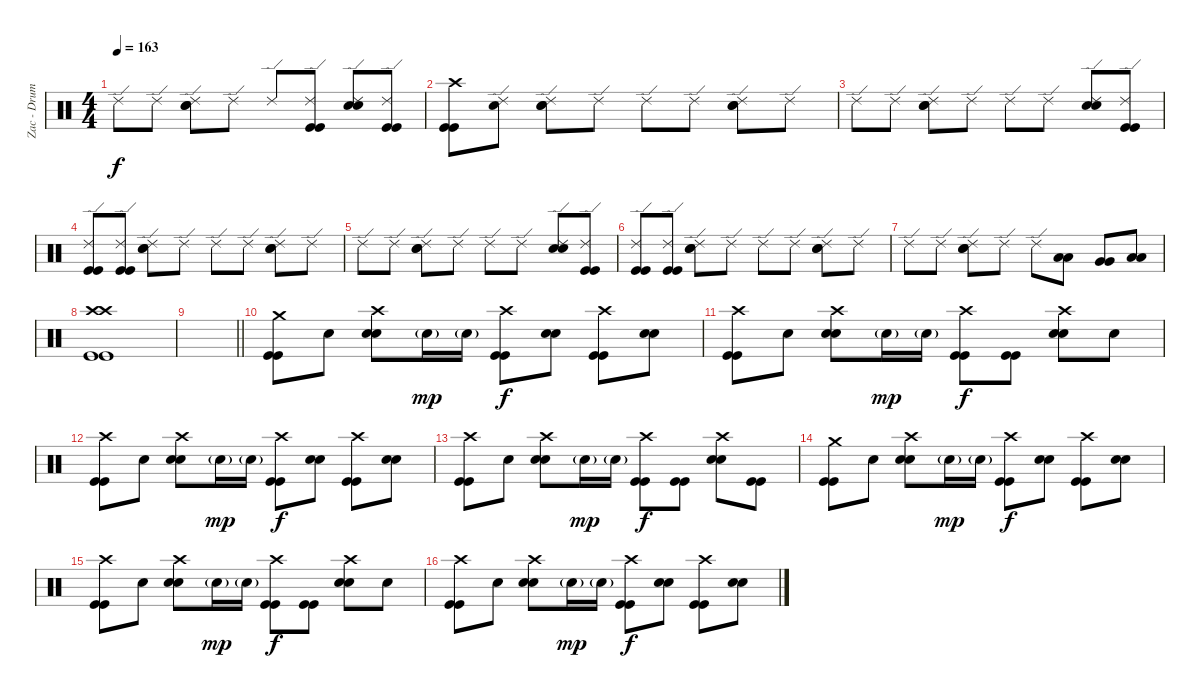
\track ("Zac - Drums" "Zac - Drum") {instrument percussion}
\staff {score}
\articulation defaults
\ts (4 4)
\tempo 163
\clef neutral
\ks c "Ride (edge) 2".8{dy f} "Ride (edge) 2".8
("Ride (edge) 2" "Electric Snare (hit)" "Electric Snare (hit)").8 "Ride (edge) 2".8 "Ride (edge) 2".8 ("Ride (edge) 2" "Kick (hit)" "Kick (hit)").8 ("Ride (edge) 2" "Electric Snare (hit)" "Electric Snare (hit)").8 ("Ride (edge) 2" "Kick (hit)" "Kick (hit)").8 |
("Crash high (hit)" "Kick (hit)" "Kick (hit)").8 ("Ride (edge) 2" "Snare (hit)").8 ("Ride (edge) 2" "Electric Snare (hit)" "Electric Snare (hit)").8 "Ride (edge) 2".8 "Ride (edge) 2".8 "Ride (edge) 2".8 ("Ride (edge) 2" "Electric Snare (hit)" "Electric Snare (hit)").8 "Ride (edge) 2".8 |
"Ride (edge) 2".8 "Ride (edge) 2".8 ("Ride (edge) 2" "Electric Snare (hit)" "Electric Snare (hit)").8 "Ride (edge) 2".8 "Ride (edge) 2".8 "Ride (edge) 2".8 ("Ride (edge) 2" "Electric Snare (hit)" "Electric Snare (hit)").8 ("Ride (edge) 2" "Kick (hit)" "Kick (hit)").8 |
("Ride (edge) 2" "Kick (hit)" "Kick (hit)").8 ("Ride (edge) 2" "Kick (hit)" "Kick (hit)").8 ("Ride (edge) 2" "Electric Snare (hit)" "Electric Snare (hit)").8 "Ride (edge) 2".8 "Ride (edge) 2".8 "Ride (edge) 2".8 ("Ride (edge) 2" "Electric Snare (hit)" "Electric Snare (hit)").8 "Ride (edge) 2".8 |
"Ride (edge) 2".8 "Ride (edge) 2".8 ("Ride (edge) 2" "Electric Snare (hit)" "Electric Snare (hit)").8 "Ride (edge) 2".8 "Ride (edge) 2".8 "Ride (edge) 2".8 ("Ride (edge) 2" "Electric Snare (hit)" "Electric Snare (hit)").8 ("Ride (edge) 2" "Kick (hit)" "Kick (hit)").8 |
("Ride (edge) 2" "Kick (hit)" "Kick (hit)").8 ("Ride (edge) 2" "Kick (hit)" "Kick (hit)").8 ("Ride (edge) 2" "Electric Snare (hit)" "Electric Snare (hit)").8 "Ride (edge) 2".8 "Ride (edge) 2".8 "Ride (edge) 2".8 ("Ride (edge) 2" "Electric Snare (hit)" "Electric Snare (hit)").8 "Ride (edge) 2".8 |
"Ride (edge) 2".8 "Ride (edge) 2".8 ("Ride (edge) 2" "Electric Snare (hit)" "Electric Snare (hit)").8 "Ride (edge) 2".8 "Ride (edge) 2".8 ("Low Tom (hit)" "Low Tom (hit)").8 ("Very Low Tom (hit)" "Very Low Tom (hit)").8 ("Low Floor Tom (hit)" "Low Floor Tom (hit)").8 |
("Crash high (hit)" "Crash high (hit)" "Kick (hit)" "Kick (hit)").1 |
\barLineRight lightlight
|
("Crash medium (hit)" "Kick (hit)" "Kick (hit)").8 "Snare (hit)".8 ("Crash high (hit)" "Electric Snare (hit)" "Electric Snare (hit)").8 "Electric Snare (hit)"{g}.16{dy mp} "Electric Snare (hit)"{g}.16 ("Crash high (hit)" "Kick (hit)" "Kick (hit)").8{dy f} ("Electric Snare (hit)" "Electric Snare (hit)").8 ("Crash high (hit)" "Kick (hit)" "Kick (hit)").8 ("Electric Snare (hit)" "Electric Snare (hit)").8 |
("Crash high (hit)" "Kick (hit)" "Kick (hit)").8 "Snare (hit)".8 ("Crash high (hit)" "Electric Snare (hit)" "Electric Snare (hit)").8 "Electric Snare (hit)"{g}.16{dy mp} "Electric Snare (hit)"{g}.16 ("Crash high (hit)" "Kick (hit)" "Kick (hit)").8{dy f} ("Kick (hit)" "Kick (hit)").8 ("Crash high (hit)" "Electric Snare (hit)" "Electric Snare (hit)").8 "Snare (hit)".8 |
("Crash high (hit)" "Kick (hit)" "Kick (hit)").8 "Snare (hit)".8 ("Crash high (hit)" "Electric Snare (hit)" "Electric Snare (hit)").8 "Electric Snare (hit)"{g}.16{dy mp} "Electric Snare (hit)"{g}.16 ("Crash high (hit)" "Kick (hit)" "Kick (hit)").8{dy f} ("Electric Snare (hit)" "Electric Snare (hit)").8 ("Crash high (hit)" "Kick (hit)" "Kick (hit)").8 ("Electric Snare (hit)" "Electric Snare (hit)").8 |
("Crash high (hit)" "Kick (hit)" "Kick (hit)").8 "Snare (hit)".8 ("Crash high (hit)" "Electric Snare (hit)" "Electric Snare (hit)").8 "Electric Snare (hit)"{g}.16{dy mp} "Electric Snare (hit)"{g}.16 ("Crash high (hit)" "Kick (hit)" "Kick (hit)").8{dy f} ("Kick (hit)" "Kick (hit)").8 ("Crash high (hit)" "Electric Snare (hit)" "Electric Snare (hit)").8 ("Kick (hit)" "Kick (hit)").8 |
("Crash medium (hit)" "Kick (hit)" "Kick (hit)").8 "Snare (hit)".8 ("Crash high (hit)" "Electric Snare (hit)" "Electric Snare (hit)").8 "Electric Snare (hit)"{g}.16{dy mp} "Electric Snare (hit)"{g}.16 ("Crash high (hit)" "Kick (hit)" "Kick (hit)").8{dy f} ("Electric Snare (hit)" "Electric Snare (hit)").8 ("Crash high (hit)" "Kick (hit)" "Kick (hit)").8 ("Electric Snare (hit)" "Electric Snare (hit)").8 |
("Crash high (hit)" "Kick (hit)" "Kick (hit)").8 "Snare (hit)".8 ("Crash high (hit)" "Electric Snare (hit)" "Electric Snare (hit)").8 "Electric Snare (hit)"{g}.16{dy mp} "Electric Snare (hit)"{g}.16 ("Crash high (hit)" "Kick (hit)" "Kick (hit)").8{dy f} ("Kick (hit)" "Kick (hit)").8 ("Crash high (hit)" "Electric Snare (hit)" "Electric Snare (hit)").8 "Snare (hit)".8 |
("Crash high (hit)" "Kick (hit)" "Kick (hit)").8 "Snare (hit)".8 ("Crash high (hit)" "Electric Snare (hit)" "Electric Snare (hit)").8 "Electric Snare (hit)"{g}.16{dy mp} "Electric Snare (hit)"{g}.16 ("Crash high (hit)" "Kick (hit)" "Kick (hit)").8{dy f} ("Electric Snare (hit)" "Electric Snare (hit)").8 ("Crash high (hit)" "Kick (hit)" "Kick (hit)").8 ("Electric Snare (hit)" "Electric Snare (hit)").8
